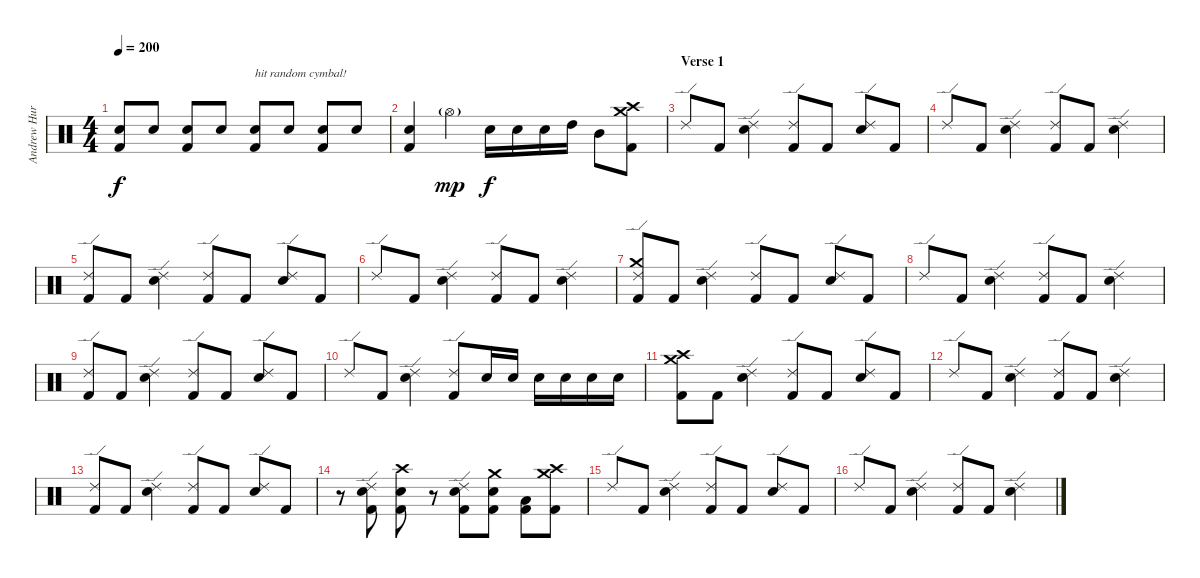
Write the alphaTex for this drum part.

\track ("Andrew Hurley (Drums)" "Andrew Hur") {instrument percussion}
\staff {score}
\articulation defaults
\ts (4 4)
\tempo 200
\clef neutral
\ks c
("Electric Snare (hit)" "Kick (hit) 2").8{dy f} "Electric Snare (hit)".8 ("Electric Snare (hit)" "Kick (hit) 2").8 "Electric Snare (hit)".8 ("Electric Snare (hit)" "Kick (hit) 2").8{txt "hit random cymbal!"} "Electric Snare (hit)".8 ("Electric Snare (hit)" "Kick (hit) 2").8 "Electric Snare (hit)".8 |
("Electric Snare (hit)" "Kick (hit) 2").4 "Hi-Hat (open)"{g}.4{dy mp} "Electric Snare (hit)".16{dy f} "Electric Snare (hit)".16 "Electric Snare (hit)".16 "High Tom (hit)".16 "Mid Tom (hit)".8 ("Crash medium (hit)" "Kick (hit) 2" "Crash high (hit)").8 |
\section ("" "Verse 1")
"Ride (edge) 2".8 "Kick (hit) 2".8 ("Electric Snare (hit)" "Ride (edge) 2").4 ("Kick (hit) 2" "Ride (edge) 2").8 "Kick (hit) 2".8 ("Electric Snare (hit)" "Ride (edge) 2").8 "Kick (hit) 2".8 |
"Ride (edge) 2".8 "Kick (hit) 2".8 ("Electric Snare (hit)" "Ride (edge) 2").4 ("Kick (hit) 2" "Ride (edge) 2").8 "Kick (hit) 2".8 ("Electric Snare (hit)" "Ride (edge) 2").4 |
("Kick (hit) 2" "Ride (edge) 2").8 "Kick (hit) 2".8 ("Electric Snare (hit)" "Ride (edge) 2").4 ("Kick (hit) 2" "Ride (edge) 2").8 "Kick (hit) 2".8 ("Electric Snare (hit)" "Ride (edge) 2").8 "Kick (hit) 2".8 |
"Ride (edge) 2".8 "Kick (hit) 2".8 ("Electric Snare (hit)" "Ride (edge) 2").4 ("Kick (hit) 2" "Ride (edge) 2").8 "Kick (hit) 2".8 ("Electric Snare (hit)" "Ride (edge) 2").4 |
("Kick (hit) 2" "Ride (edge) 2" "Crash medium (hit)").8 "Kick (hit) 2".8 ("Electric Snare (hit)" "Ride (edge) 2").4 ("Kick (hit) 2" "Ride (edge) 2").8 "Kick (hit) 2".8 ("Electric Snare (hit)" "Ride (edge) 2").8 "Kick (hit) 2".8 |
"Ride (edge) 2".8 "Kick (hit) 2".8 ("Electric Snare (hit)" "Ride (edge) 2").4 ("Kick (hit) 2" "Ride (edge) 2").8 "Kick (hit) 2".8 ("Electric Snare (hit)" "Ride (edge) 2").4 |
("Kick (hit) 2" "Ride (edge) 2").8 "Kick (hit) 2".8 ("Electric Snare (hit)" "Ride (edge) 2").4 ("Kick (hit) 2" "Ride (edge) 2").8 "Kick (hit) 2".8 ("Electric Snare (hit)" "Ride (edge) 2").8 "Kick (hit) 2".8 |
"Ride (edge) 2".8 "Kick (hit) 2".8 ("Electric Snare (hit)" "Ride (edge) 2").4 ("Kick (hit) 2" "Ride (edge) 2").8 "Electric Snare (hit)".16 "Electric Snare (hit)".16 "Electric Snare (hit)".16 "Electric Snare (hit)".16 "Electric Snare (hit)".16 "Electric Snare (hit)".16 |
("Kick (hit) 2" "Crash medium (hit)" "Crash high (hit)").8 "Kick (hit) 2".8 ("Electric Snare (hit)" "Ride (edge) 2").4 ("Kick (hit) 2" "Ride (edge) 2").8 "Kick (hit) 2".8 ("Electric Snare (hit)" "Ride (edge) 2").8 "Kick (hit) 2".8 |
"Ride (edge) 2".8 "Kick (hit) 2".8 ("Electric Snare (hit)" "Ride (edge) 2").4 ("Kick (hit) 2" "Ride (edge) 2").8 "Kick (hit) 2".8 ("Electric Snare (hit)" "Ride (edge) 2").4 |
("Kick (hit) 2" "Ride (edge) 2").8 "Kick (hit) 2".8 ("Electric Snare (hit)" "Ride (edge) 2").4 ("Kick (hit) 2" "Ride (edge) 2").8 "Kick (hit) 2".8 ("Electric Snare (hit)" "Ride (edge) 2").8 "Kick (hit) 2".8 |
r.8 ("Electric Snare (hit)" "Kick (hit) 2" "Ride (edge) 2").8 ("Electric Snare (hit)" "Kick (hit) 2" "Crash high (hit)").8 r.8 ("Electric Snare (hit)" "Kick (hit) 2" "Ride (edge) 2").8 ("Electric Snare (hit)" "Kick (hit) 2" "Crash medium (hit)").8 ("Kick (hit) 2" "Low Floor Tom (hit)").8 ("Kick (hit) 2" "Crash high (hit)" "Crash medium (hit)").8 |
"Ride (edge) 2".8 "Kick (hit) 2".8 ("Electric Snare (hit)" "Ride (edge) 2").4 ("Kick (hit) 2" "Ride (edge) 2").8 "Kick (hit) 2".8 ("Electric Snare (hit)" "Ride (edge) 2").8 "Kick (hit) 2".8 |
"Ride (edge) 2".8 "Kick (hit) 2".8 ("Electric Snare (hit)" "Ride (edge) 2").4 ("Kick (hit) 2" "Ride (edge) 2").8 "Kick (hit) 2".8 ("Electric Snare (hit)" "Ride (edge) 2").4
